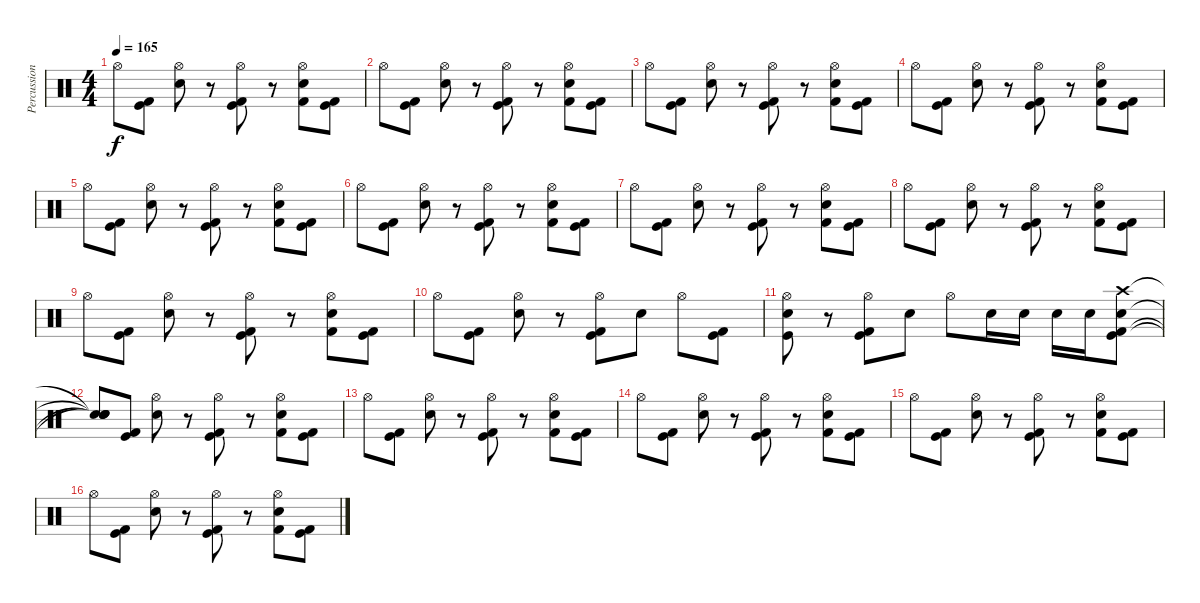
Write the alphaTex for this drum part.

\track ("Percussions" "Percussion") {instrument percussion}
\staff {score}
\articulation defaults
\ts (4 4)
\tempo 165
\clef neutral
\ks c "Hi-Hat (open)".8{dy f}
("Kick (hit) 2" "Kick (hit)").8 ("Snare (hit) 2" "Hi-Hat (open)").8 r.8 ("Kick (hit) 2" "Kick (hit)" "Hi-Hat (open)").8 r.8 ("Kick (hit) 2" "Snare (hit) 2" "Hi-Hat (open)").8 ("Kick (hit) 2" "Kick (hit)").8 |
"Hi-Hat (open)".8 ("Kick (hit) 2" "Kick (hit)").8 ("Snare (hit) 2" "Hi-Hat (open)").8 r.8 ("Kick (hit) 2" "Kick (hit)" "Hi-Hat (open)").8 r.8 ("Kick (hit) 2" "Snare (hit) 2" "Hi-Hat (open)").8 ("Kick (hit) 2" "Kick (hit)").8 |
"Hi-Hat (open)".8 ("Kick (hit) 2" "Kick (hit)").8 ("Snare (hit) 2" "Hi-Hat (open)").8 r.8 ("Kick (hit) 2" "Kick (hit)" "Hi-Hat (open)").8 r.8 ("Kick (hit) 2" "Snare (hit) 2" "Hi-Hat (open)").8 ("Kick (hit) 2" "Kick (hit)").8 |
"Hi-Hat (open)".8 ("Kick (hit) 2" "Kick (hit)").8 ("Snare (hit) 2" "Hi-Hat (open)").8 r.8 ("Kick (hit) 2" "Kick (hit)" "Hi-Hat (open)").8 r.8 ("Kick (hit) 2" "Snare (hit) 2" "Hi-Hat (open)").8 ("Kick (hit) 2" "Kick (hit)").8 |
"Hi-Hat (open)".8 ("Kick (hit) 2" "Kick (hit)").8 ("Snare (hit) 2" "Hi-Hat (open)").8 r.8 ("Kick (hit) 2" "Kick (hit)" "Hi-Hat (open)").8 r.8 ("Kick (hit) 2" "Snare (hit) 2" "Hi-Hat (open)").8 ("Kick (hit) 2" "Kick (hit)").8 |
"Hi-Hat (open)".8 ("Kick (hit) 2" "Kick (hit)").8 ("Snare (hit) 2" "Hi-Hat (open)").8 r.8 ("Kick (hit) 2" "Kick (hit)" "Hi-Hat (open)").8 r.8 ("Kick (hit) 2" "Snare (hit) 2" "Hi-Hat (open)").8 ("Kick (hit) 2" "Kick (hit)").8 |
"Hi-Hat (open)".8 ("Kick (hit) 2" "Kick (hit)").8 ("Snare (hit) 2" "Hi-Hat (open)").8 r.8 ("Kick (hit) 2" "Kick (hit)" "Hi-Hat (open)").8 r.8 ("Kick (hit) 2" "Snare (hit) 2" "Hi-Hat (open)").8 ("Kick (hit) 2" "Kick (hit)").8 |
"Hi-Hat (open)".8 ("Kick (hit) 2" "Kick (hit)").8 ("Snare (hit) 2" "Hi-Hat (open)").8 r.8 ("Kick (hit) 2" "Kick (hit)" "Hi-Hat (open)").8 r.8 ("Kick (hit) 2" "Snare (hit) 2" "Hi-Hat (open)").8 ("Kick (hit) 2" "Kick (hit)").8 |
"Hi-Hat (open)".8 ("Kick (hit) 2" "Kick (hit)").8 ("Snare (hit) 2" "Hi-Hat (open)").8 r.8 ("Kick (hit) 2" "Kick (hit)" "Hi-Hat (open)").8 r.8 ("Kick (hit) 2" "Snare (hit) 2" "Hi-Hat (open)").8 ("Kick (hit) 2" "Kick (hit)").8 |
"Hi-Hat (open)".8 ("Kick (hit) 2" "Kick (hit)").8 ("Snare (hit) 2" "Hi-Hat (open)").8 r.8 ("Kick (hit) 2" "Kick (hit)" "Hi-Hat (open)").8 "Snare (hit) 2".8 "Hi-Hat (open)".8 ("Kick (hit) 2" "Kick (hit)").8 |
("Snare (hit) 2" "Kick (hit)" "Hi-Hat (open)").8 r.8 ("Kick (hit) 2" "Kick (hit)" "Hi-Hat (open)").8 "Snare (hit) 2".8 "Hi-Hat (open)".8 "Snare (hit) 2".16 "Snare (hit) 2".16 "Snare (hit) 2".16 "Snare (hit) 2".16 ("Kick (hit) 2" "Kick (hit)" "Snare (hit) 2" "Crash high (hit)").8 |
("Snare (hit)"{t} "Snare (hit)"{t} "Snare (hit)"{t} "Snare (hit)"{t}).8 ("Kick (hit) 2" "Kick (hit)").8 ("Snare (hit) 2" "Hi-Hat (open)").8 r.8 ("Kick (hit) 2" "Kick (hit)" "Hi-Hat (open)").8 r.8 ("Kick (hit) 2" "Snare (hit) 2" "Hi-Hat (open)").8 ("Kick (hit) 2" "Kick (hit)").8 |
"Hi-Hat (open)".8 ("Kick (hit) 2" "Kick (hit)").8 ("Snare (hit) 2" "Hi-Hat (open)").8 r.8 ("Kick (hit) 2" "Kick (hit)" "Hi-Hat (open)").8 r.8 ("Kick (hit) 2" "Snare (hit) 2" "Hi-Hat (open)").8 ("Kick (hit) 2" "Kick (hit)").8 |
"Hi-Hat (open)".8 ("Kick (hit) 2" "Kick (hit)").8 ("Snare (hit) 2" "Hi-Hat (open)").8 r.8 ("Kick (hit) 2" "Kick (hit)" "Hi-Hat (open)").8 r.8 ("Kick (hit) 2" "Snare (hit) 2" "Hi-Hat (open)").8 ("Kick (hit) 2" "Kick (hit)").8 |
"Hi-Hat (open)".8 ("Kick (hit) 2" "Kick (hit)").8 ("Snare (hit) 2" "Hi-Hat (open)").8 r.8 ("Kick (hit) 2" "Kick (hit)" "Hi-Hat (open)").8 r.8 ("Kick (hit) 2" "Snare (hit) 2" "Hi-Hat (open)").8 ("Kick (hit) 2" "Kick (hit)").8 |
"Hi-Hat (open)".8 ("Kick (hit) 2" "Kick (hit)").8 ("Snare (hit) 2" "Hi-Hat (open)").8 r.8 ("Kick (hit) 2" "Kick (hit)" "Hi-Hat (open)").8 r.8 ("Kick (hit) 2" "Snare (hit) 2" "Hi-Hat (open)").8 ("Kick (hit) 2" "Kick (hit)").8
